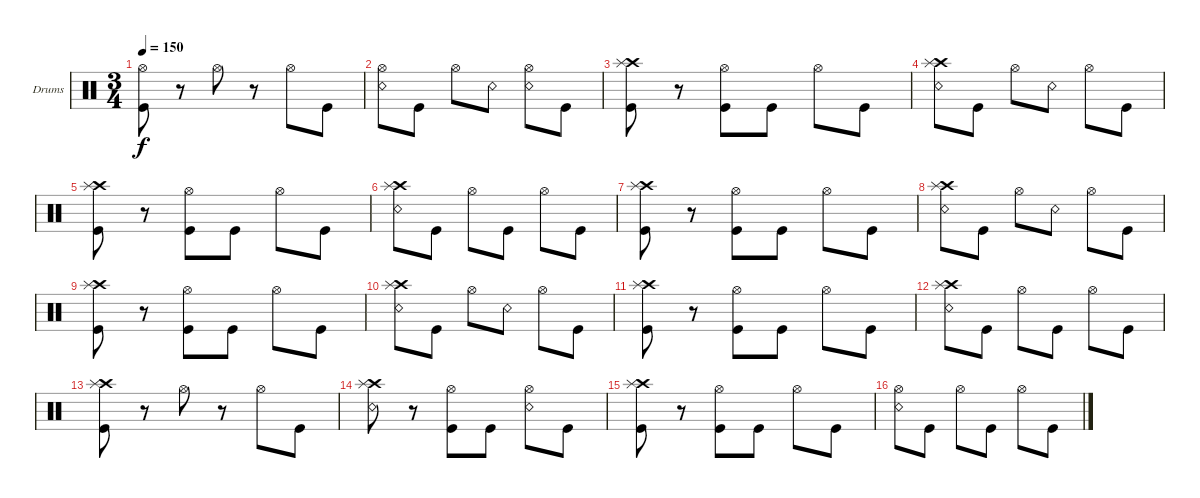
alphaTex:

\defaultSystemsLayout 4
\bracketExtendMode groupsimilarinstruments
\firstSystemTrackNameOrientation horizontal
\otherSystemsTrackNameOrientation horizontal
\track ("Scott" "Drums") {mute instrument percussion}
\staff {score}
\articulation defaults
\ts (3 4)
\tempo 150
\clef neutral
\scale
0.333333
\ks c
("Kick (hit)" "Hi-Hat (open)").8{dy f} r.8 "Hi-Hat (open)".8 r.8 "Hi-Hat (open)".8 "Kick (hit)".8 |
\scale
0.333333 ("Snare (rim shot)" "Hi-Hat (open)").8 "Kick (hit)".8 "Hi-Hat (open)".8 "Snare (rim shot)".8 ("Hi-Hat (open)" "Snare (rim shot)").8 "Kick (hit)".8 |
\scale
0.333333 ("Kick (hit)" "Crash high (hit)" "Splash (hit)").8 r.8 ("Kick (hit)" "Hi-Hat (open)").8 "Kick (hit)".8 "Hi-Hat (open)".8 "Kick (hit)".8 |
\scale
0.333333 ("Snare (rim shot)" "Crash high (hit)" "Splash (hit)").8 "Kick (hit)".8 "Hi-Hat (open)".8 "Snare (rim shot)".8 "Hi-Hat (open)".8 "Kick (hit)".8 |
\scale
0.333333 ("Kick (hit)" "Crash high (hit)" "Splash (hit)").8 r.8 ("Kick (hit)" "Hi-Hat (open)").8 "Kick (hit)".8 "Hi-Hat (open)".8 "Kick (hit)".8 |
\scale
0.333333 ("Snare (rim shot)" "Crash high (hit)" "Splash (hit)").8 "Kick (hit)".8 "Hi-Hat (open)".8 "Kick (hit)".8 "Hi-Hat (open)".8 "Kick (hit)".8 |
\scale
0.333333 ("Kick (hit)" "Crash high (hit)" "Splash (hit)").8 r.8 ("Kick (hit)" "Hi-Hat (open)").8 "Kick (hit)".8 "Hi-Hat (open)".8 "Kick (hit)".8 |
\scale
0.333333 ("Snare (rim shot)" "Crash high (hit)" "Splash (hit)").8 "Kick (hit)".8 "Hi-Hat (open)".8 "Snare (rim shot)".8 "Hi-Hat (open)".8 "Kick (hit)".8 |
\scale
0.333333 ("Kick (hit)" "Crash high (hit)" "Splash (hit)").8 r.8 ("Kick (hit)" "Hi-Hat (open)").8 "Kick (hit)".8 "Hi-Hat (open)".8 "Kick (hit)".8 |
\scale
0.333333 ("Snare (rim shot)" "Crash high (hit)" "Splash (hit)").8 "Kick (hit)".8 "Hi-Hat (open)".8 "Snare (rim shot)".8 "Hi-Hat (open)".8 "Kick (hit)".8 |
\scale
0.333333 ("Kick (hit)" "Crash high (hit)" "Splash (hit)").8 r.8 ("Kick (hit)" "Hi-Hat (open)").8 "Kick (hit)".8 "Hi-Hat (open)".8 "Kick (hit)".8 |
\scale
0.333333 ("Snare (rim shot)" "Crash high (hit)" "Splash (hit)").8 "Kick (hit)".8 "Hi-Hat (open)".8 "Kick (hit)".8 "Hi-Hat (open)".8 "Kick (hit)".8 |
\scale
0.333333 ("Kick (hit)" "Crash high (hit)" "Splash (hit)").8 r.8 "Hi-Hat (open)".8 r.8 "Hi-Hat (open)".8 "Kick (hit)".8 |
\scale
0.333333 ("Snare (rim shot)" "Crash high (hit)" "Splash (hit)").8 r.8 ("Kick (hit)" "Hi-Hat (open)").8 "Kick (hit)".8 ("Snare (rim shot)" "Hi-Hat (open)").8 "Kick (hit)".8 |
\scale
0.333333 ("Kick (hit)" "Crash high (hit)" "Splash (hit)").8 r.8 ("Kick (hit)" "Hi-Hat (open)").8 "Kick (hit)".8 "Hi-Hat (open)".8 "Kick (hit)".8 |
\scale
0.333333 ("Snare (rim shot)" "Hi-Hat (open)").8 "Kick (hit)".8 "Hi-Hat (open)".8 "Kick (hit)".8 "Hi-Hat (open)".8 "Kick (hit)".8
